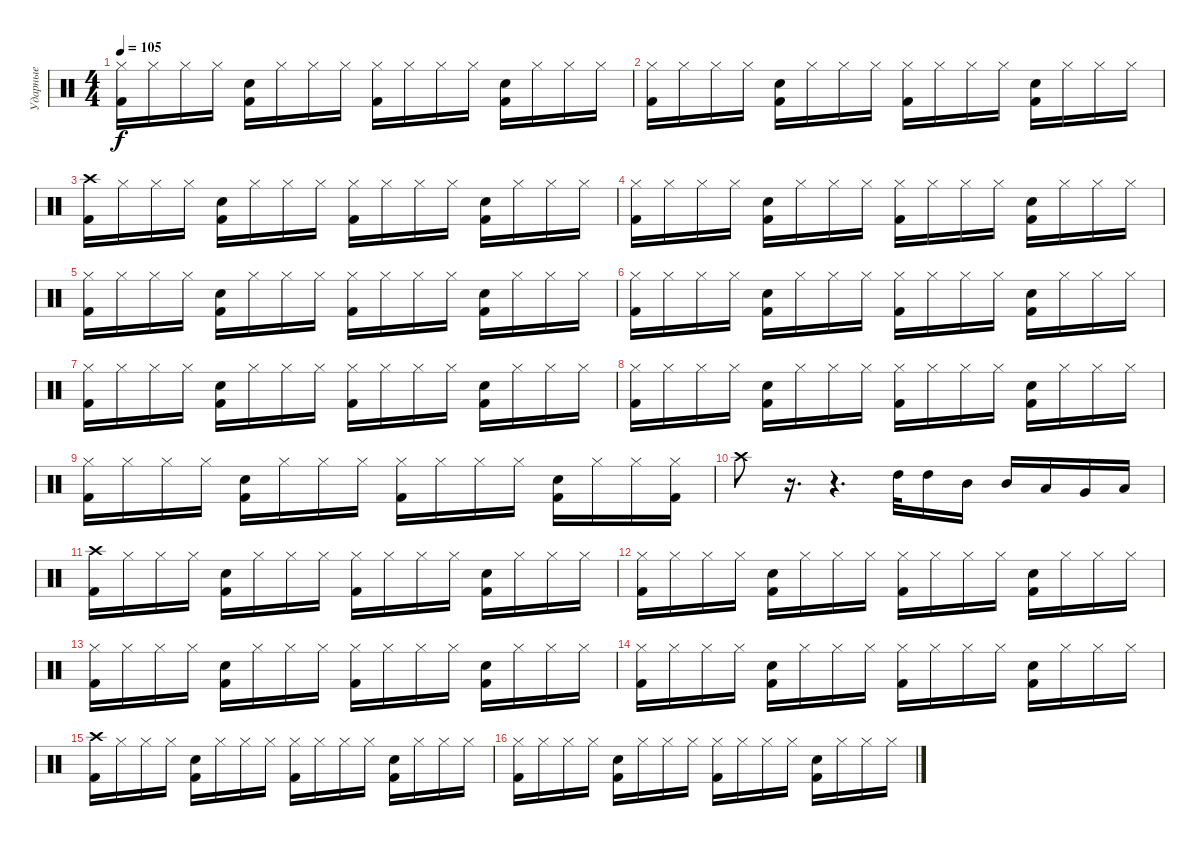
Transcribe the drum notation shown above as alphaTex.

\track ("Ударные" "Ударные") {instrument percussion}
\staff {score}
\articulation defaults
\ts (4 4)
\tempo 105
\clef neutral
\ks c
("Hi-Hat (closed)" "Kick (hit) 2").16{dy f} "Hi-Hat (closed)".16 "Hi-Hat (closed)".16 "Hi-Hat (closed)".16 ("Kick (hit) 2" "Electric Snare (hit)").16 "Hi-Hat (closed)".16 "Hi-Hat (closed)".16 "Hi-Hat (closed)".16 ("Hi-Hat (closed)" "Kick (hit) 2").16 "Hi-Hat (closed)".16 "Hi-Hat (closed)".16 "Hi-Hat (closed)".16 ("Kick (hit) 2" "Electric Snare (hit)").16 "Hi-Hat (closed)".16 "Hi-Hat (closed)".16 "Hi-Hat (closed)".16 |
("Hi-Hat (closed)" "Kick (hit) 2").16 "Hi-Hat (closed)".16 "Hi-Hat (closed)".16 "Hi-Hat (closed)".16 ("Kick (hit) 2" "Electric Snare (hit)").16 "Hi-Hat (closed)".16 "Hi-Hat (closed)".16 "Hi-Hat (closed)".16 ("Hi-Hat (closed)" "Kick (hit) 2").16 "Hi-Hat (closed)".16 "Hi-Hat (closed)".16 "Hi-Hat (closed)".16 ("Kick (hit) 2" "Electric Snare (hit)").16 "Hi-Hat (closed)".16 "Hi-Hat (closed)".16 "Hi-Hat (closed)".16 |
("Crash high (hit)" "Kick (hit) 2").16 "Hi-Hat (closed)".16 "Hi-Hat (closed)".16 "Hi-Hat (closed)".16 ("Kick (hit) 2" "Electric Snare (hit)").16 "Hi-Hat (closed)".16 "Hi-Hat (closed)".16 "Hi-Hat (closed)".16 ("Hi-Hat (closed)" "Kick (hit) 2").16 "Hi-Hat (closed)".16 "Hi-Hat (closed)".16 "Hi-Hat (closed)".16 ("Kick (hit) 2" "Electric Snare (hit)").16 "Hi-Hat (closed)".16 "Hi-Hat (closed)".16 "Hi-Hat (closed)".16 |
("Hi-Hat (closed)" "Kick (hit) 2").16 "Hi-Hat (closed)".16 "Hi-Hat (closed)".16 "Hi-Hat (closed)".16 ("Kick (hit) 2" "Electric Snare (hit)").16 "Hi-Hat (closed)".16 "Hi-Hat (closed)".16 "Hi-Hat (closed)".16 ("Hi-Hat (closed)" "Kick (hit) 2").16 "Hi-Hat (closed)".16 "Hi-Hat (closed)".16 "Hi-Hat (closed)".16 ("Kick (hit) 2" "Electric Snare (hit)").16 "Hi-Hat (closed)".16 "Hi-Hat (closed)".16 "Hi-Hat (closed)".16 |
("Hi-Hat (closed)" "Kick (hit) 2").16 "Hi-Hat (closed)".16 "Hi-Hat (closed)".16 "Hi-Hat (closed)".16 ("Kick (hit) 2" "Electric Snare (hit)").16 "Hi-Hat (closed)".16 "Hi-Hat (closed)".16 "Hi-Hat (closed)".16 ("Hi-Hat (closed)" "Kick (hit) 2").16 "Hi-Hat (closed)".16 "Hi-Hat (closed)".16 "Hi-Hat (closed)".16 ("Kick (hit) 2" "Electric Snare (hit)").16 "Hi-Hat (closed)".16 "Hi-Hat (closed)".16 "Hi-Hat (closed)".16 |
("Hi-Hat (closed)" "Kick (hit) 2").16 "Hi-Hat (closed)".16 "Hi-Hat (closed)".16 "Hi-Hat (closed)".16 ("Kick (hit) 2" "Electric Snare (hit)").16 "Hi-Hat (closed)".16 "Hi-Hat (closed)".16 "Hi-Hat (closed)".16 ("Hi-Hat (closed)" "Kick (hit) 2").16 "Hi-Hat (closed)".16 "Hi-Hat (closed)".16 "Hi-Hat (closed)".16 ("Kick (hit) 2" "Electric Snare (hit)").16 "Hi-Hat (closed)".16 "Hi-Hat (closed)".16 "Hi-Hat (closed)".16 |
("Hi-Hat (closed)" "Kick (hit) 2").16 "Hi-Hat (closed)".16 "Hi-Hat (closed)".16 "Hi-Hat (closed)".16 ("Kick (hit) 2" "Electric Snare (hit)").16 "Hi-Hat (closed)".16 "Hi-Hat (closed)".16 "Hi-Hat (closed)".16 ("Hi-Hat (closed)" "Kick (hit) 2").16 "Hi-Hat (closed)".16 "Hi-Hat (closed)".16 "Hi-Hat (closed)".16 ("Kick (hit) 2" "Electric Snare (hit)").16 "Hi-Hat (closed)".16 "Hi-Hat (closed)".16 "Hi-Hat (closed)".16 |
("Hi-Hat (closed)" "Kick (hit) 2").16 "Hi-Hat (closed)".16 "Hi-Hat (closed)".16 "Hi-Hat (closed)".16 ("Kick (hit) 2" "Electric Snare (hit)").16 "Hi-Hat (closed)".16 "Hi-Hat (closed)".16 "Hi-Hat (closed)".16 ("Hi-Hat (closed)" "Kick (hit) 2").16 "Hi-Hat (closed)".16 "Hi-Hat (closed)".16 "Hi-Hat (closed)".16 ("Kick (hit) 2" "Electric Snare (hit)").16 "Hi-Hat (closed)".16 "Hi-Hat (closed)".16 "Hi-Hat (closed)".16 |
("Hi-Hat (closed)" "Kick (hit) 2").16 "Hi-Hat (closed)".16 "Hi-Hat (closed)".16 "Hi-Hat (closed)".16 ("Kick (hit) 2" "Electric Snare (hit)").16 "Hi-Hat (closed)".16 "Hi-Hat (closed)".16 "Hi-Hat (closed)".16 ("Hi-Hat (closed)" "Kick (hit) 2").16 "Hi-Hat (closed)".16 "Hi-Hat (closed)".16 "Hi-Hat (closed)".16 ("Kick (hit) 2" "Electric Snare (hit)").16 "Hi-Hat (closed)".16 "Hi-Hat (closed)".16 ("Hi-Hat (closed)" "Kick (hit) 2").16 |
"Crash high (hit)".8 r.16{d} r.4{d} "High Tom (hit)".32 "High Tom (hit)".16 "Mid Tom (hit)".16 "Mid Tom (hit)".16 "Low Tom (hit)".16 "Very Low Tom (hit)".16 "Low Floor Tom (hit)".16 |
("Crash high (hit)" "Kick (hit) 2").16 "Hi-Hat (closed)".16 "Hi-Hat (closed)".16 "Hi-Hat (closed)".16 ("Kick (hit) 2" "Electric Snare (hit)").16 "Hi-Hat (closed)".16 "Hi-Hat (closed)".16 "Hi-Hat (closed)".16 ("Hi-Hat (closed)" "Kick (hit) 2").16 "Hi-Hat (closed)".16 "Hi-Hat (closed)".16 "Hi-Hat (closed)".16 ("Kick (hit) 2" "Electric Snare (hit)").16 "Hi-Hat (closed)".16 "Hi-Hat (closed)".16 "Hi-Hat (closed)".16 |
("Hi-Hat (closed)" "Kick (hit) 2").16 "Hi-Hat (closed)".16 "Hi-Hat (closed)".16 "Hi-Hat (closed)".16 ("Kick (hit) 2" "Electric Snare (hit)").16 "Hi-Hat (closed)".16 "Hi-Hat (closed)".16 "Hi-Hat (closed)".16 ("Hi-Hat (closed)" "Kick (hit) 2").16 "Hi-Hat (closed)".16 "Hi-Hat (closed)".16 "Hi-Hat (closed)".16 ("Kick (hit) 2" "Electric Snare (hit)").16 "Hi-Hat (closed)".16 "Hi-Hat (closed)".16 "Hi-Hat (closed)".16 |
("Hi-Hat (closed)" "Kick (hit) 2").16 "Hi-Hat (closed)".16 "Hi-Hat (closed)".16 "Hi-Hat (closed)".16 ("Kick (hit) 2" "Electric Snare (hit)").16 "Hi-Hat (closed)".16 "Hi-Hat (closed)".16 "Hi-Hat (closed)".16 ("Hi-Hat (closed)" "Kick (hit) 2").16 "Hi-Hat (closed)".16 "Hi-Hat (closed)".16 "Hi-Hat (closed)".16 ("Kick (hit) 2" "Electric Snare (hit)").16 "Hi-Hat (closed)".16 "Hi-Hat (closed)".16 "Hi-Hat (closed)".16 |
("Hi-Hat (closed)" "Kick (hit) 2").16 "Hi-Hat (closed)".16 "Hi-Hat (closed)".16 "Hi-Hat (closed)".16 ("Kick (hit) 2" "Electric Snare (hit)").16 "Hi-Hat (closed)".16 "Hi-Hat (closed)".16 "Hi-Hat (closed)".16 ("Hi-Hat (closed)" "Kick (hit) 2").16 "Hi-Hat (closed)".16 "Hi-Hat (closed)".16 "Hi-Hat (closed)".16 ("Kick (hit) 2" "Electric Snare (hit)").16 "Hi-Hat (closed)".16 "Hi-Hat (closed)".16 "Hi-Hat (closed)".16 |
("Crash high (hit)" "Kick (hit) 2").16 "Hi-Hat (closed)".16 "Hi-Hat (closed)".16 "Hi-Hat (closed)".16 ("Kick (hit) 2" "Electric Snare (hit)").16 "Hi-Hat (closed)".16 "Hi-Hat (closed)".16 "Hi-Hat (closed)".16 ("Hi-Hat (closed)" "Kick (hit) 2").16 "Hi-Hat (closed)".16 "Hi-Hat (closed)".16 "Hi-Hat (closed)".16 ("Kick (hit) 2" "Electric Snare (hit)").16 "Hi-Hat (closed)".16 "Hi-Hat (closed)".16 "Hi-Hat (closed)".16 |
("Hi-Hat (closed)" "Kick (hit) 2").16 "Hi-Hat (closed)".16 "Hi-Hat (closed)".16 "Hi-Hat (closed)".16 ("Kick (hit) 2" "Electric Snare (hit)").16 "Hi-Hat (closed)".16 "Hi-Hat (closed)".16 "Hi-Hat (closed)".16 ("Hi-Hat (closed)" "Kick (hit) 2").16 "Hi-Hat (closed)".16 "Hi-Hat (closed)".16 "Hi-Hat (closed)".16 ("Kick (hit) 2" "Electric Snare (hit)").16 "Hi-Hat (closed)".16 "Hi-Hat (closed)".16 "Hi-Hat (closed)".16
